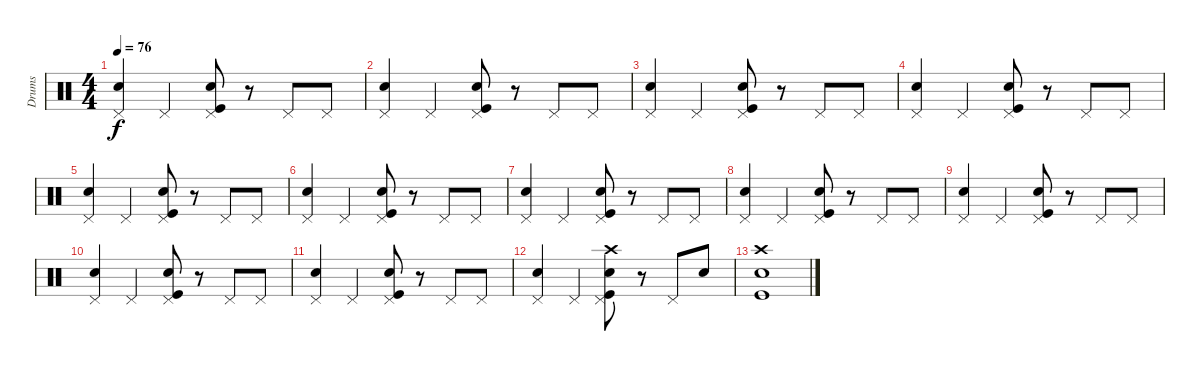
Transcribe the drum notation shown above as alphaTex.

\track ("Drums" "Drums") {instrument percussion}
\staff {score}
\articulation defaults
\ts (4 4)
\tempo 76
\clef neutral
\ks c
("Pedal Hi-Hat (hit)" "Snare (hit) 2").4{dy f} "Pedal Hi-Hat (hit)".4 ("Pedal Hi-Hat (hit)" "Snare (hit) 2" "Kick (hit)").8 r.8 "Pedal Hi-Hat (hit)".8 "Pedal Hi-Hat (hit)".8 |
("Pedal Hi-Hat (hit)" "Snare (hit) 2").4 "Pedal Hi-Hat (hit)".4 ("Pedal Hi-Hat (hit)" "Snare (hit) 2" "Kick (hit)").8 r.8 "Pedal Hi-Hat (hit)".8 "Pedal Hi-Hat (hit)".8 |
("Pedal Hi-Hat (hit)" "Snare (hit) 2").4 "Pedal Hi-Hat (hit)".4 ("Pedal Hi-Hat (hit)" "Snare (hit) 2" "Kick (hit)").8 r.8 "Pedal Hi-Hat (hit)".8 "Pedal Hi-Hat (hit)".8 |
("Pedal Hi-Hat (hit)" "Snare (hit) 2").4 "Pedal Hi-Hat (hit)".4 ("Pedal Hi-Hat (hit)" "Snare (hit) 2" "Kick (hit)").8 r.8 "Pedal Hi-Hat (hit)".8 "Pedal Hi-Hat (hit)".8 |
("Pedal Hi-Hat (hit)" "Snare (hit) 2").4 "Pedal Hi-Hat (hit)".4 ("Pedal Hi-Hat (hit)" "Snare (hit) 2" "Kick (hit)").8 r.8 "Pedal Hi-Hat (hit)".8 "Pedal Hi-Hat (hit)".8 |
("Pedal Hi-Hat (hit)" "Snare (hit) 2").4 "Pedal Hi-Hat (hit)".4 ("Pedal Hi-Hat (hit)" "Snare (hit) 2" "Kick (hit)").8 r.8 "Pedal Hi-Hat (hit)".8 "Pedal Hi-Hat (hit)".8 |
("Pedal Hi-Hat (hit)" "Snare (hit) 2").4 "Pedal Hi-Hat (hit)".4 ("Pedal Hi-Hat (hit)" "Snare (hit) 2" "Kick (hit)").8 r.8 "Pedal Hi-Hat (hit)".8 "Pedal Hi-Hat (hit)".8 |
("Pedal Hi-Hat (hit)" "Snare (hit) 2").4 "Pedal Hi-Hat (hit)".4 ("Pedal Hi-Hat (hit)" "Snare (hit) 2" "Kick (hit)").8 r.8 "Pedal Hi-Hat (hit)".8 "Pedal Hi-Hat (hit)".8 |
("Pedal Hi-Hat (hit)" "Snare (hit) 2").4 "Pedal Hi-Hat (hit)".4 ("Pedal Hi-Hat (hit)" "Snare (hit) 2" "Kick (hit)").8 r.8 "Pedal Hi-Hat (hit)".8 "Pedal Hi-Hat (hit)".8 |
("Pedal Hi-Hat (hit)" "Snare (hit) 2").4 "Pedal Hi-Hat (hit)".4 ("Pedal Hi-Hat (hit)" "Snare (hit) 2" "Kick (hit)").8 r.8 "Pedal Hi-Hat (hit)".8 "Pedal Hi-Hat (hit)".8 |
("Pedal Hi-Hat (hit)" "Snare (hit) 2").4 "Pedal Hi-Hat (hit)".4 ("Pedal Hi-Hat (hit)" "Snare (hit) 2" "Kick (hit)").8 r.8 "Pedal Hi-Hat (hit)".8 "Pedal Hi-Hat (hit)".8 |
("Pedal Hi-Hat (hit)" "Snare (hit) 2").4 "Pedal Hi-Hat (hit)".4 ("Pedal Hi-Hat (hit)" "Crash high (hit)" "Snare (hit) 2" "Kick (hit)").8 r.8 "Pedal Hi-Hat (hit)".8 "Snare (hit) 2".8 |
("Crash high (hit)" "Snare (hit) 2" "Kick (hit)").1
